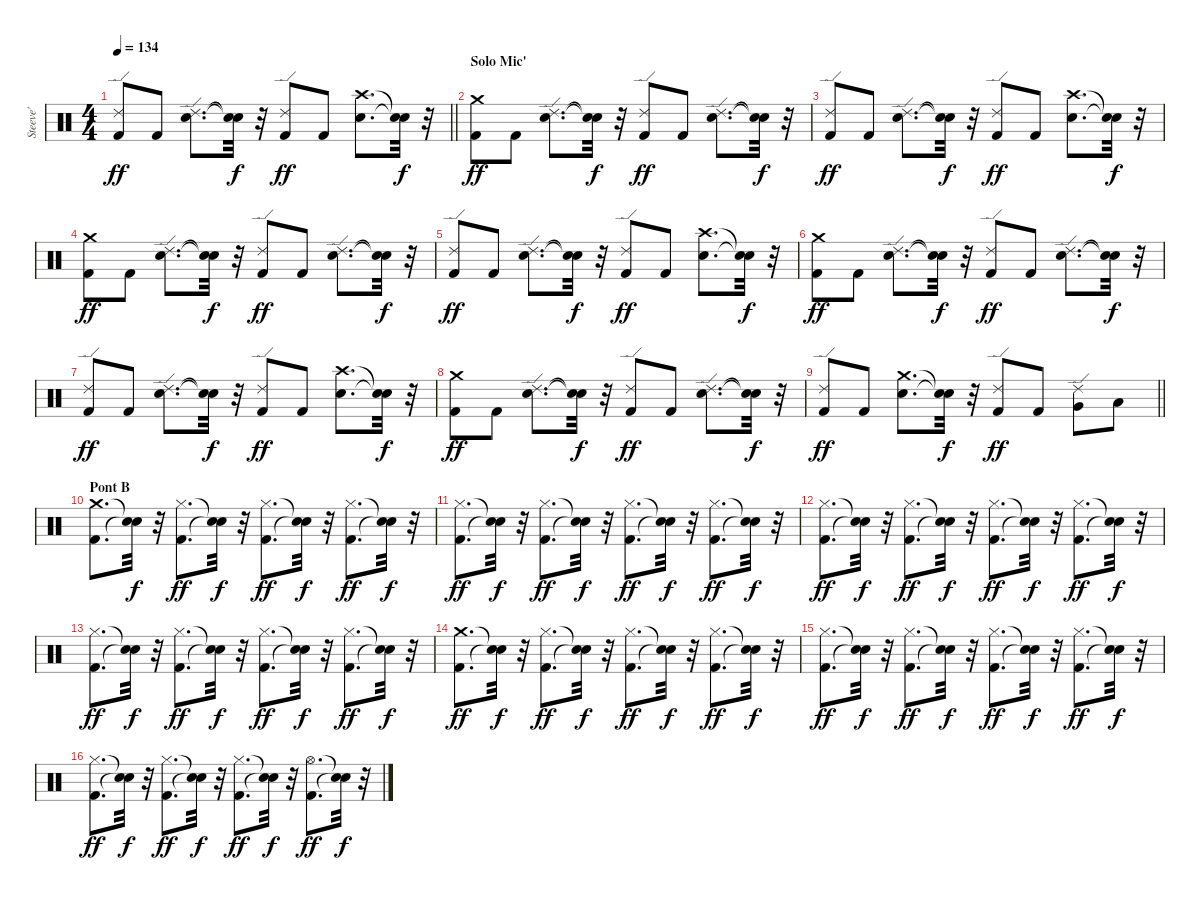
\track ("Steeve'" "Steeve'") {instrument percussion}
\staff {score}
\articulation defaults
\ts (4 4)
\tempo 134
\clef neutral
\barLineRight lightlight
\ks c
("Kick (hit) 2" "Ride (edge) 2").8{dy ff} "Kick (hit) 2".8 ("Electric Snare (hit)" "Ride (edge) 2").8{d} ("Snare (hit)"{t} "Snare (hit)"{t}).32{dy f} r.32 ("Kick (hit) 2" "Ride (edge) 2").8{dy ff} "Kick (hit) 2".8 ("Electric Snare (hit)" "Crash high (hit)").8{d} ("Snare (hit)"{t} "Snare (hit)"{t}).32{dy f} r.32 |
\section ("" "Solo Mic'")
("Kick (hit) 2" "Crash medium (hit)").8{dy ff} "Kick (hit) 2".8 ("Electric Snare (hit)" "Ride (edge) 2").8{d} ("Snare (hit)"{t} "Snare (hit)"{t}).32{dy f} r.32 ("Kick (hit) 2" "Ride (edge) 2").8{dy ff} "Kick (hit) 2".8 ("Electric Snare (hit)" "Ride (edge) 2").8{d} ("Snare (hit)"{t} "Snare (hit)"{t}).32{dy f} r.32 |
("Kick (hit) 2" "Ride (edge) 2").8{dy ff} "Kick (hit) 2".8 ("Electric Snare (hit)" "Ride (edge) 2").8{d} ("Snare (hit)"{t} "Snare (hit)"{t}).32{dy f} r.32 ("Kick (hit) 2" "Ride (edge) 2").8{dy ff} "Kick (hit) 2".8 ("Electric Snare (hit)" "Crash high (hit)").8{d} ("Snare (hit)"{t} "Snare (hit)"{t}).32{dy f} r.32 |
("Kick (hit) 2" "Crash medium (hit)").8{dy ff} "Kick (hit) 2".8 ("Electric Snare (hit)" "Ride (edge) 2").8{d} ("Snare (hit)"{t} "Snare (hit)"{t}).32{dy f} r.32 ("Kick (hit) 2" "Ride (edge) 2").8{dy ff} "Kick (hit) 2".8 ("Electric Snare (hit)" "Ride (edge) 2").8{d} ("Snare (hit)"{t} "Snare (hit)"{t}).32{dy f} r.32 |
("Kick (hit) 2" "Ride (edge) 2").8{dy ff} "Kick (hit) 2".8 ("Electric Snare (hit)" "Ride (edge) 2").8{d} ("Snare (hit)"{t} "Snare (hit)"{t}).32{dy f} r.32 ("Kick (hit) 2" "Ride (edge) 2").8{dy ff} "Kick (hit) 2".8 ("Electric Snare (hit)" "Crash high (hit)").8{d} ("Snare (hit)"{t} "Snare (hit)"{t}).32{dy f} r.32 |
("Kick (hit) 2" "Crash medium (hit)").8{dy ff} "Kick (hit) 2".8 ("Electric Snare (hit)" "Ride (edge) 2").8{d} ("Snare (hit)"{t} "Snare (hit)"{t}).32{dy f} r.32 ("Kick (hit) 2" "Ride (edge) 2").8{dy ff} "Kick (hit) 2".8 ("Electric Snare (hit)" "Ride (edge) 2").8{d} ("Snare (hit)"{t} "Snare (hit)"{t}).32{dy f} r.32 |
("Kick (hit) 2" "Ride (edge) 2").8{dy ff} "Kick (hit) 2".8 ("Electric Snare (hit)" "Ride (edge) 2").8{d} ("Snare (hit)"{t} "Snare (hit)"{t}).32{dy f} r.32 ("Kick (hit) 2" "Ride (edge) 2").8{dy ff} "Kick (hit) 2".8 ("Electric Snare (hit)" "Crash high (hit)").8{d} ("Snare (hit)"{t} "Snare (hit)"{t}).32{dy f} r.32 |
("Kick (hit) 2" "Crash medium (hit)").8{dy ff} "Kick (hit) 2".8 ("Electric Snare (hit)" "Ride (edge) 2").8{d} ("Snare (hit)"{t} "Snare (hit)"{t}).32{dy f} r.32 ("Kick (hit) 2" "Ride (edge) 2").8{dy ff} "Kick (hit) 2".8 ("Electric Snare (hit)" "Ride (edge) 2").8{d} ("Snare (hit)"{t} "Snare (hit)"{t}).32{dy f} r.32 |
\barLineRight lightlight
("Kick (hit) 2" "Ride (edge) 2").8{dy ff} "Kick (hit) 2".8 ("Electric Snare (hit)" "Crash medium (hit)").8{d} ("Snare (hit)"{t} "Snare (hit)"{t}).32{dy f} r.32 ("Kick (hit) 2" "Ride (edge) 2").8{dy ff} "Kick (hit) 2".8 ("Very Low Tom (hit)" "Ride (edge) 2").8 "Low Floor Tom (hit)".8 |
\section ("" "Pont B")
("Kick (hit) 2" "Crash medium (hit)").8{d} ("Snare (hit)"{t} "Snare (hit)"{t}).32{dy f} r.32 ("Kick (hit) 2" "Hi-Hat (closed)").8{d dy ff} ("Snare (hit)"{t} "Snare (hit)"{t}).32{dy f} r.32 ("Kick (hit) 2" "Hi-Hat (closed)").8{d dy ff} ("Snare (hit)"{t} "Snare (hit)"{t}).32{dy f} r.32 ("Kick (hit) 2" "Hi-Hat (closed)").8{d dy ff} ("Snare (hit)"{t} "Snare (hit)"{t}).32{dy f} r.32 |
("Kick (hit) 2" "Hi-Hat (closed)").8{d dy ff} ("Snare (hit)"{t} "Snare (hit)"{t}).32{dy f} r.32 ("Kick (hit) 2" "Hi-Hat (closed)").8{d dy ff} ("Snare (hit)"{t} "Snare (hit)"{t}).32{dy f} r.32 ("Kick (hit) 2" "Hi-Hat (closed)").8{d dy ff} ("Snare (hit)"{t} "Snare (hit)"{t}).32{dy f} r.32 ("Kick (hit) 2" "Hi-Hat (closed)").8{d dy ff} ("Snare (hit)"{t} "Snare (hit)"{t}).32{dy f} r.32 |
("Kick (hit) 2" "Hi-Hat (closed)").8{d dy ff} ("Snare (hit)"{t} "Snare (hit)"{t}).32{dy f} r.32 ("Kick (hit) 2" "Hi-Hat (closed)").8{d dy ff} ("Snare (hit)"{t} "Snare (hit)"{t}).32{dy f} r.32 ("Kick (hit) 2" "Hi-Hat (closed)").8{d dy ff} ("Snare (hit)"{t} "Snare (hit)"{t}).32{dy f} r.32 ("Kick (hit) 2" "Hi-Hat (closed)").8{d dy ff} ("Snare (hit)"{t} "Snare (hit)"{t}).32{dy f} r.32 |
("Kick (hit) 2" "Hi-Hat (closed)").8{d dy ff} ("Snare (hit)"{t} "Snare (hit)"{t}).32{dy f} r.32 ("Kick (hit) 2" "Hi-Hat (closed)").8{d dy ff} ("Snare (hit)"{t} "Snare (hit)"{t}).32{dy f} r.32 ("Kick (hit) 2" "Hi-Hat (closed)").8{d dy ff} ("Snare (hit)"{t} "Snare (hit)"{t}).32{dy f} r.32 ("Kick (hit) 2" "Hi-Hat (closed)").8{d dy ff} ("Snare (hit)"{t} "Snare (hit)"{t}).32{dy f} r.32 |
("Kick (hit) 2" "Crash medium (hit)").8{d dy ff} ("Snare (hit)"{t} "Snare (hit)"{t}).32{dy f} r.32 ("Kick (hit) 2" "Hi-Hat (closed)").8{d dy ff} ("Snare (hit)"{t} "Snare (hit)"{t}).32{dy f} r.32 ("Kick (hit) 2" "Hi-Hat (closed)").8{d dy ff} ("Snare (hit)"{t} "Snare (hit)"{t}).32{dy f} r.32 ("Kick (hit) 2" "Hi-Hat (closed)").8{d dy ff} ("Snare (hit)"{t} "Snare (hit)"{t}).32{dy f} r.32 |
("Kick (hit) 2" "Hi-Hat (closed)").8{d dy ff} ("Snare (hit)"{t} "Snare (hit)"{t}).32{dy f} r.32 ("Kick (hit) 2" "Hi-Hat (closed)").8{d dy ff} ("Snare (hit)"{t} "Snare (hit)"{t}).32{dy f} r.32 ("Kick (hit) 2" "Hi-Hat (closed)").8{d dy ff} ("Snare (hit)"{t} "Snare (hit)"{t}).32{dy f} r.32 ("Kick (hit) 2" "Hi-Hat (closed)").8{d dy ff} ("Snare (hit)"{t} "Snare (hit)"{t}).32{dy f} r.32 |
("Kick (hit) 2" "Hi-Hat (closed)").8{d dy ff} ("Snare (hit)"{t} "Snare (hit)"{t}).32{dy f} r.32 ("Kick (hit) 2" "Hi-Hat (closed)").8{d dy ff} ("Snare (hit)"{t} "Snare (hit)"{t}).32{dy f} r.32 ("Kick (hit) 2" "Hi-Hat (closed)").8{d dy ff} ("Snare (hit)"{t} "Snare (hit)"{t}).32{dy f} r.32 ("Kick (hit) 2" "Hi-Hat (open)").8{d dy ff} ("Snare (hit)"{t} "Snare (hit)"{t}).32{dy f} r.32
